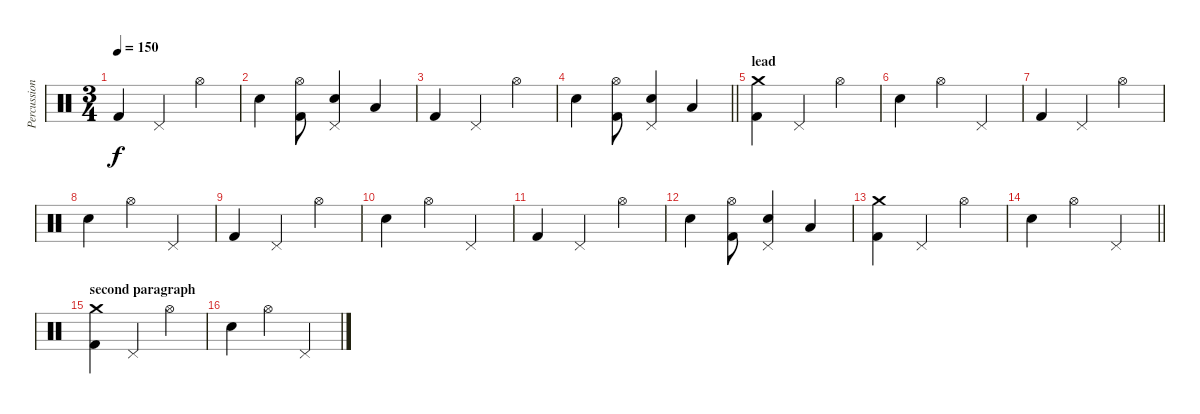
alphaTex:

\track ("Percussion" "Percussion") {instrument percussion}
\staff {score}
\articulation defaults
\ts (3 4)
\tempo 150
\clef neutral
\ks c "Kick (hit) 2".4{dy f} "Pedal Hi-Hat (hit)".4 "Hi-Hat (open)".4
|
"Snare (hit) 2".4 ("Kick (hit) 2" "Hi-Hat (open)").8 ("Snare (hit) 2" "Pedal Hi-Hat (hit)").4 "Low Tom (hit)".4 |
"Kick (hit) 2".4 "Pedal Hi-Hat (hit)".4 "Hi-Hat (open)".4 |
\barLineRight lightlight "Snare (hit) 2".4
("Kick (hit) 2" "Hi-Hat (open)").8 ("Snare (hit) 2" "Pedal Hi-Hat (hit)").4 "Low Tom (hit)".4 |
\section ("" "lead")
("Kick (hit) 2" "Crash medium (hit)").4 "Pedal Hi-Hat (hit)".4 "Hi-Hat (open)".4 |
"Snare (hit) 2".4 "Hi-Hat (open)".4 "Pedal Hi-Hat (hit)".4 |
"Kick (hit) 2".4 "Pedal Hi-Hat (hit)".4 "Hi-Hat (open)".4 |
"Snare (hit) 2".4 "Hi-Hat (open)".4 "Pedal Hi-Hat (hit)".4 |
"Kick (hit) 2".4 "Pedal Hi-Hat (hit)".4 "Hi-Hat (open)".4 |
"Snare (hit) 2".4 "Hi-Hat (open)".4 "Pedal Hi-Hat (hit)".4 |
"Kick (hit) 2".4 "Pedal Hi-Hat (hit)".4 "Hi-Hat (open)".4 |
"Snare (hit) 2".4 ("Kick (hit) 2" "Hi-Hat (open)").8 ("Snare (hit) 2" "Pedal Hi-Hat (hit)").4 "Low Tom (hit)".4 |
("Kick (hit) 2" "Crash medium (hit)").4 "Pedal Hi-Hat (hit)".4 "Hi-Hat (open)".4 |
\barLineRight lightlight "Snare (hit) 2".4 "Hi-Hat (open)".4 "Pedal Hi-Hat (hit)".4
|
\section ("" "second paragraph")
("Kick (hit) 2" "Crash medium (hit)").4 "Pedal Hi-Hat (hit)".4 "Hi-Hat (open)".4 |
"Snare (hit) 2".4 "Hi-Hat (open)".4 "Pedal Hi-Hat (hit)".4
